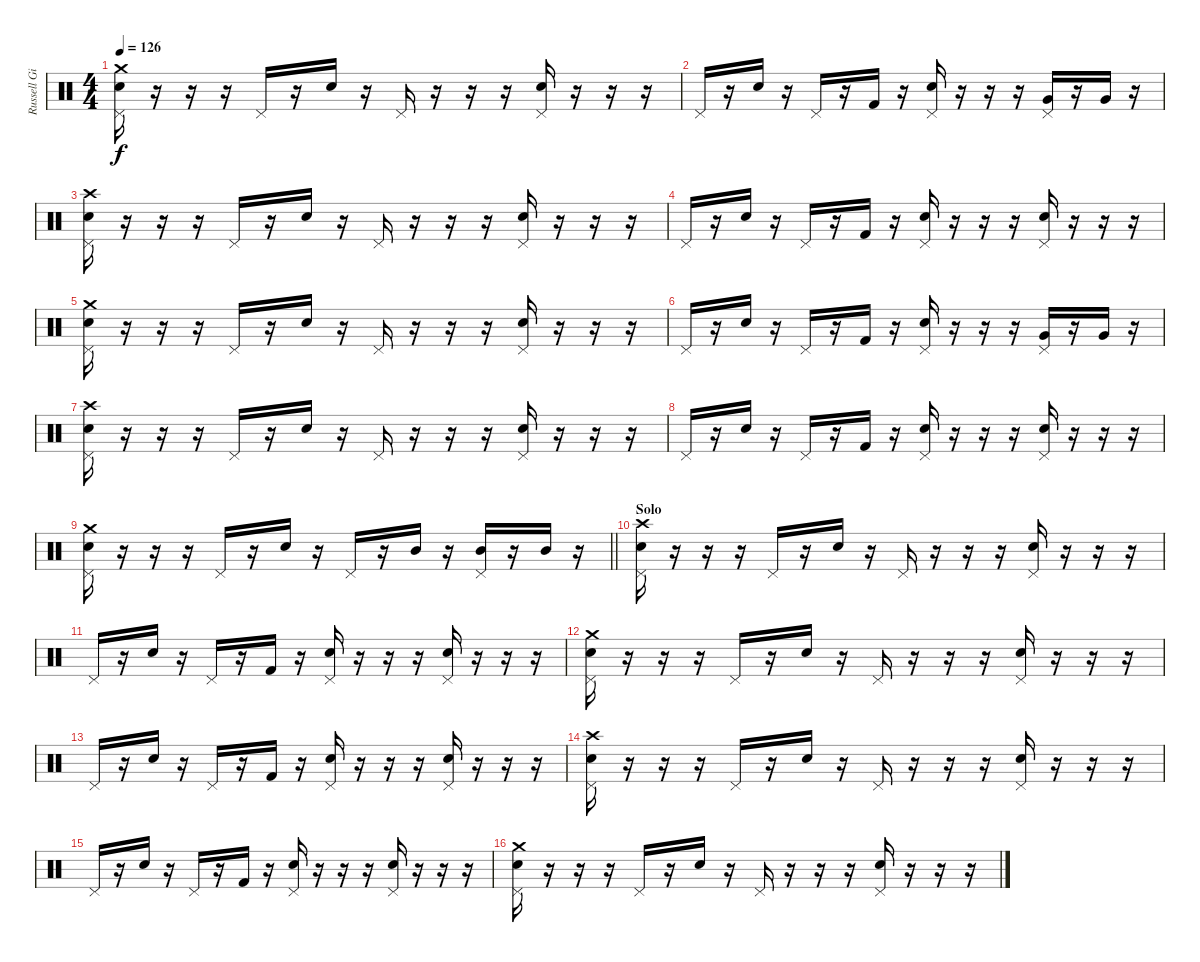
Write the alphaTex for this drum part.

\track ("Russell Gilbrook - Drums" "Russell Gi") {instrument percussion}
\staff {score}
\articulation defaults
\ts (4 4)
\tempo 126
\clef neutral
\ks c
("Crash medium (hit)" "Pedal Hi-Hat (hit)" "Snare (hit) 2").16{dy f} r.16 r.16 r.16 "Pedal Hi-Hat (hit)".16 r.16 "Snare (hit) 2".16 r.16 "Pedal Hi-Hat (hit)".16 r.16 r.16 r.16 ("Pedal Hi-Hat (hit)" "Snare (hit) 2").16 r.16 r.16 r.16 |
"Pedal Hi-Hat (hit)".16 r.16 "Snare (hit) 2".16 r.16 "Pedal Hi-Hat (hit)".16 r.16 "Kick (hit) 2".16 r.16 ("Pedal Hi-Hat (hit)" "Snare (hit) 2").16 r.16 r.16 r.16 ("Very Low Tom (hit)" "Pedal Hi-Hat (hit)").16 r.16 "Very Low Tom (hit)".16 r.16 |
("Crash high (hit)" "Pedal Hi-Hat (hit)" "Snare (hit) 2").16 r.16 r.16 r.16 "Pedal Hi-Hat (hit)".16 r.16 "Snare (hit) 2".16 r.16 "Pedal Hi-Hat (hit)".16 r.16 r.16 r.16 ("Pedal Hi-Hat (hit)" "Snare (hit) 2").16 r.16 r.16 r.16 |
"Pedal Hi-Hat (hit)".16 r.16 "Snare (hit) 2".16 r.16 "Pedal Hi-Hat (hit)".16 r.16 "Kick (hit) 2".16 r.16 ("Pedal Hi-Hat (hit)" "Snare (hit) 2").16 r.16 r.16 r.16 ("Pedal Hi-Hat (hit)" "Snare (hit) 2").16 r.16 r.16 r.16 |
("Crash medium (hit)" "Pedal Hi-Hat (hit)" "Snare (hit) 2").16 r.16 r.16 r.16 "Pedal Hi-Hat (hit)".16 r.16 "Snare (hit) 2".16 r.16 "Pedal Hi-Hat (hit)".16 r.16 r.16 r.16 ("Pedal Hi-Hat (hit)" "Snare (hit) 2").16 r.16 r.16 r.16 |
"Pedal Hi-Hat (hit)".16 r.16 "Snare (hit) 2".16 r.16 "Pedal Hi-Hat (hit)".16 r.16 "Kick (hit) 2".16 r.16 ("Pedal Hi-Hat (hit)" "Snare (hit) 2").16 r.16 r.16 r.16 ("Very Low Tom (hit)" "Pedal Hi-Hat (hit)").16 r.16 "Very Low Tom (hit)".16 r.16 |
("Crash high (hit)" "Pedal Hi-Hat (hit)" "Snare (hit) 2").16 r.16 r.16 r.16 "Pedal Hi-Hat (hit)".16 r.16 "Snare (hit) 2".16 r.16 "Pedal Hi-Hat (hit)".16 r.16 r.16 r.16 ("Pedal Hi-Hat (hit)" "Snare (hit) 2").16 r.16 r.16 r.16 |
"Pedal Hi-Hat (hit)".16 r.16 "Snare (hit) 2".16 r.16 "Pedal Hi-Hat (hit)".16 r.16 "Kick (hit) 2".16 r.16 ("Pedal Hi-Hat (hit)" "Snare (hit) 2").16 r.16 r.16 r.16 ("Pedal Hi-Hat (hit)" "Snare (hit) 2").16 r.16 r.16 r.16 |
\barLineRight lightlight
("Crash medium (hit)" "Pedal Hi-Hat (hit)" "Snare (hit) 2").16 r.16 r.16 r.16 "Pedal Hi-Hat (hit)".16 r.16 "Snare (hit) 2".16 r.16 "Pedal Hi-Hat (hit)".16 r.16 "Mid Tom (hit)".16 r.16 ("Mid Tom (hit)" "Pedal Hi-Hat (hit)").16 r.16 "Mid Tom (hit)".16 r.16 |
\section ("" "Solo")
("Crash high (hit)" "Pedal Hi-Hat (hit)" "Snare (hit) 2").16 r.16 r.16 r.16 "Pedal Hi-Hat (hit)".16 r.16 "Snare (hit) 2".16 r.16 "Pedal Hi-Hat (hit)".16 r.16 r.16 r.16 ("Pedal Hi-Hat (hit)" "Snare (hit) 2").16 r.16 r.16 r.16 |
"Pedal Hi-Hat (hit)".16 r.16 "Snare (hit) 2".16 r.16 "Pedal Hi-Hat (hit)".16 r.16 "Kick (hit) 2".16 r.16 ("Pedal Hi-Hat (hit)" "Snare (hit) 2").16 r.16 r.16 r.16 ("Pedal Hi-Hat (hit)" "Snare (hit) 2").16 r.16 r.16 r.16 |
("Crash medium (hit)" "Pedal Hi-Hat (hit)" "Snare (hit) 2").16 r.16 r.16 r.16 "Pedal Hi-Hat (hit)".16 r.16 "Snare (hit) 2".16 r.16 "Pedal Hi-Hat (hit)".16 r.16 r.16 r.16 ("Pedal Hi-Hat (hit)" "Snare (hit) 2").16 r.16 r.16 r.16 |
"Pedal Hi-Hat (hit)".16 r.16 "Snare (hit) 2".16 r.16 "Pedal Hi-Hat (hit)".16 r.16 "Kick (hit) 2".16 r.16 ("Pedal Hi-Hat (hit)" "Snare (hit) 2").16 r.16 r.16 r.16 ("Pedal Hi-Hat (hit)" "Snare (hit) 2").16 r.16 r.16 r.16 |
("Crash high (hit)" "Pedal Hi-Hat (hit)" "Snare (hit) 2").16 r.16 r.16 r.16 "Pedal Hi-Hat (hit)".16 r.16 "Snare (hit) 2".16 r.16 "Pedal Hi-Hat (hit)".16 r.16 r.16 r.16 ("Pedal Hi-Hat (hit)" "Snare (hit) 2").16 r.16 r.16 r.16 |
"Pedal Hi-Hat (hit)".16 r.16 "Snare (hit) 2".16 r.16 "Pedal Hi-Hat (hit)".16 r.16 "Kick (hit) 2".16 r.16 ("Pedal Hi-Hat (hit)" "Snare (hit) 2").16 r.16 r.16 r.16 ("Pedal Hi-Hat (hit)" "Snare (hit) 2").16 r.16 r.16 r.16 |
("Crash medium (hit)" "Pedal Hi-Hat (hit)" "Snare (hit) 2").16 r.16 r.16 r.16 "Pedal Hi-Hat (hit)".16 r.16 "Snare (hit) 2".16 r.16 "Pedal Hi-Hat (hit)".16 r.16 r.16 r.16 ("Pedal Hi-Hat (hit)" "Snare (hit) 2").16 r.16 r.16 r.16
